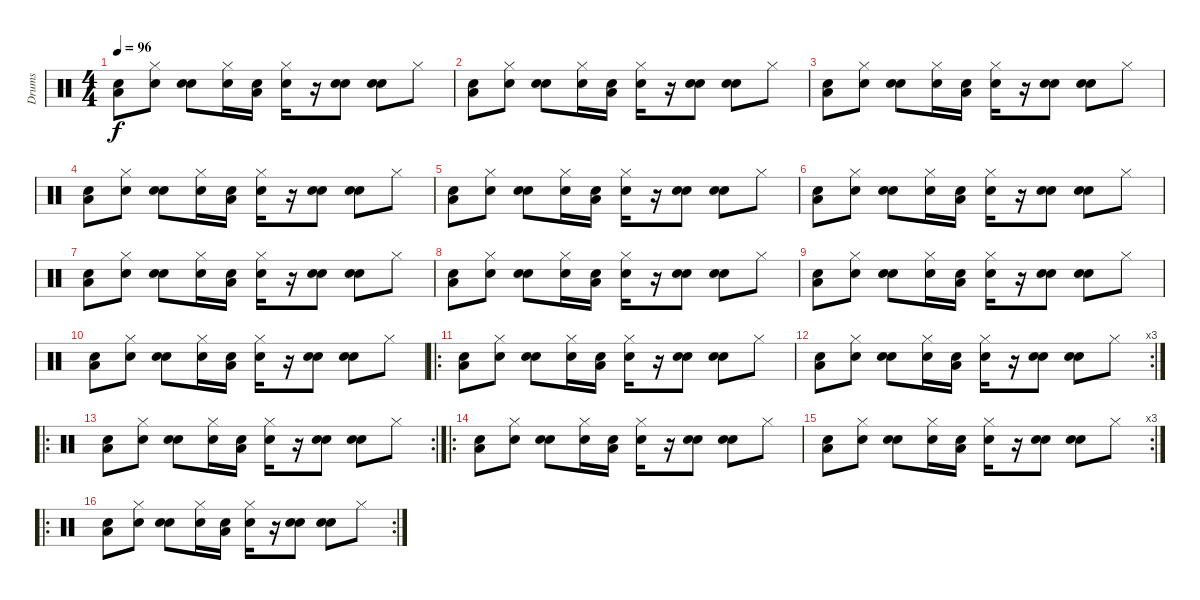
\track ("Drums" "Drums") {instrument percussion}
\staff {score}
\articulation defaults
\ts (4 4)
\tempo 96
\clef neutral
\ks c
("Electric Snare (hit)" "Low Floor Tom (hit)").8{dy f} ("Electric Snare (hit)" "Hi-Hat (closed)").8 ("Snare (hit) 2" "Electric Snare (hit)").8 ("Electric Snare (hit)" "Hi-Hat (closed)").16 ("Electric Snare (hit)" "Low Floor Tom (hit)").16 ("Electric Snare (hit)" "Hi-Hat (closed)").16 r.16 ("Electric Snare (hit)" "Electric Snare (hit)").8 ("Snare (hit) 2" "Electric Snare (hit)").8 "Hi-Hat (closed)".8 |
("Electric Snare (hit)" "Low Floor Tom (hit)").8 ("Electric Snare (hit)" "Hi-Hat (closed)").8 ("Snare (hit) 2" "Electric Snare (hit)").8 ("Electric Snare (hit)" "Hi-Hat (closed)").16 ("Electric Snare (hit)" "Low Floor Tom (hit)").16 ("Electric Snare (hit)" "Hi-Hat (closed)").16 r.16 ("Electric Snare (hit)" "Electric Snare (hit)").8 ("Snare (hit) 2" "Electric Snare (hit)").8 "Hi-Hat (closed)".8 |
("Electric Snare (hit)" "Low Floor Tom (hit)").8 ("Electric Snare (hit)" "Hi-Hat (closed)").8 ("Snare (hit) 2" "Electric Snare (hit)").8 ("Electric Snare (hit)" "Hi-Hat (closed)").16 ("Electric Snare (hit)" "Low Floor Tom (hit)").16 ("Electric Snare (hit)" "Hi-Hat (closed)").16 r.16 ("Electric Snare (hit)" "Electric Snare (hit)").8 ("Snare (hit) 2" "Electric Snare (hit)").8 "Hi-Hat (closed)".8 |
("Electric Snare (hit)" "Low Floor Tom (hit)").8 ("Electric Snare (hit)" "Hi-Hat (closed)").8 ("Snare (hit) 2" "Electric Snare (hit)").8 ("Electric Snare (hit)" "Hi-Hat (closed)").16 ("Electric Snare (hit)" "Low Floor Tom (hit)").16 ("Electric Snare (hit)" "Hi-Hat (closed)").16 r.16 ("Electric Snare (hit)" "Electric Snare (hit)").8 ("Snare (hit) 2" "Electric Snare (hit)").8 "Hi-Hat (closed)".8 |
("Electric Snare (hit)" "Low Floor Tom (hit)").8 ("Electric Snare (hit)" "Hi-Hat (closed)").8 ("Snare (hit) 2" "Electric Snare (hit)").8 ("Electric Snare (hit)" "Hi-Hat (closed)").16 ("Electric Snare (hit)" "Low Floor Tom (hit)").16 ("Electric Snare (hit)" "Hi-Hat (closed)").16 r.16 ("Electric Snare (hit)" "Electric Snare (hit)").8 ("Snare (hit) 2" "Electric Snare (hit)").8 "Hi-Hat (closed)".8 |
("Electric Snare (hit)" "Low Floor Tom (hit)").8 ("Electric Snare (hit)" "Hi-Hat (closed)").8 ("Snare (hit) 2" "Electric Snare (hit)").8 ("Electric Snare (hit)" "Hi-Hat (closed)").16 ("Electric Snare (hit)" "Low Floor Tom (hit)").16 ("Electric Snare (hit)" "Hi-Hat (closed)").16 r.16 ("Electric Snare (hit)" "Electric Snare (hit)").8 ("Snare (hit) 2" "Electric Snare (hit)").8 "Hi-Hat (closed)".8 |
("Electric Snare (hit)" "Low Floor Tom (hit)").8 ("Electric Snare (hit)" "Hi-Hat (closed)").8 ("Snare (hit) 2" "Electric Snare (hit)").8 ("Electric Snare (hit)" "Hi-Hat (closed)").16 ("Electric Snare (hit)" "Low Floor Tom (hit)").16 ("Electric Snare (hit)" "Hi-Hat (closed)").16 r.16 ("Electric Snare (hit)" "Electric Snare (hit)").8 ("Snare (hit) 2" "Electric Snare (hit)").8 "Hi-Hat (closed)".8 |
("Electric Snare (hit)" "Low Floor Tom (hit)").8 ("Electric Snare (hit)" "Hi-Hat (closed)").8 ("Snare (hit) 2" "Electric Snare (hit)").8 ("Electric Snare (hit)" "Hi-Hat (closed)").16 ("Electric Snare (hit)" "Low Floor Tom (hit)").16 ("Electric Snare (hit)" "Hi-Hat (closed)").16 r.16 ("Electric Snare (hit)" "Electric Snare (hit)").8 ("Snare (hit) 2" "Electric Snare (hit)").8 "Hi-Hat (closed)".8 |
("Electric Snare (hit)" "Low Floor Tom (hit)").8 ("Electric Snare (hit)" "Hi-Hat (closed)").8 ("Snare (hit) 2" "Electric Snare (hit)").8 ("Electric Snare (hit)" "Hi-Hat (closed)").16 ("Electric Snare (hit)" "Low Floor Tom (hit)").16 ("Electric Snare (hit)" "Hi-Hat (closed)").16 r.16 ("Electric Snare (hit)" "Electric Snare (hit)").8 ("Snare (hit) 2" "Electric Snare (hit)").8 "Hi-Hat (closed)".8 |
("Electric Snare (hit)" "Low Floor Tom (hit)").8 ("Electric Snare (hit)" "Hi-Hat (closed)").8 ("Snare (hit) 2" "Electric Snare (hit)").8 ("Electric Snare (hit)" "Hi-Hat (closed)").16 ("Electric Snare (hit)" "Low Floor Tom (hit)").16 ("Electric Snare (hit)" "Hi-Hat (closed)").16 r.16 ("Electric Snare (hit)" "Electric Snare (hit)").8 ("Snare (hit) 2" "Electric Snare (hit)").8 "Hi-Hat (closed)".8 |
\ro
("Electric Snare (hit)" "Low Floor Tom (hit)").8 ("Electric Snare (hit)" "Hi-Hat (closed)").8 ("Snare (hit) 2" "Electric Snare (hit)").8 ("Electric Snare (hit)" "Hi-Hat (closed)").16 ("Electric Snare (hit)" "Low Floor Tom (hit)").16 ("Electric Snare (hit)" "Hi-Hat (closed)").16 r.16 ("Electric Snare (hit)" "Electric Snare (hit)").8 ("Snare (hit) 2" "Electric Snare (hit)").8 "Hi-Hat (closed)".8 |
\rc 3
("Electric Snare (hit)" "Low Floor Tom (hit)").8 ("Electric Snare (hit)" "Hi-Hat (closed)").8 ("Snare (hit) 2" "Electric Snare (hit)").8 ("Electric Snare (hit)" "Hi-Hat (closed)").16 ("Electric Snare (hit)" "Low Floor Tom (hit)").16 ("Electric Snare (hit)" "Hi-Hat (closed)").16 r.16 ("Electric Snare (hit)" "Electric Snare (hit)").8 ("Snare (hit) 2" "Electric Snare (hit)").8 "Hi-Hat (closed)".8 |
\ro
\rc 2
("Electric Snare (hit)" "Low Floor Tom (hit)").8 ("Electric Snare (hit)" "Hi-Hat (closed)").8 ("Snare (hit) 2" "Electric Snare (hit)").8 ("Electric Snare (hit)" "Hi-Hat (closed)").16 ("Electric Snare (hit)" "Low Floor Tom (hit)").16 ("Electric Snare (hit)" "Hi-Hat (closed)").16 r.16 ("Electric Snare (hit)" "Electric Snare (hit)").8 ("Snare (hit) 2" "Electric Snare (hit)").8 "Hi-Hat (closed)".8 |
\ro
("Electric Snare (hit)" "Low Floor Tom (hit)").8 ("Electric Snare (hit)" "Hi-Hat (closed)").8 ("Snare (hit) 2" "Electric Snare (hit)").8 ("Electric Snare (hit)" "Hi-Hat (closed)").16 ("Electric Snare (hit)" "Low Floor Tom (hit)").16 ("Electric Snare (hit)" "Hi-Hat (closed)").16 r.16 ("Electric Snare (hit)" "Electric Snare (hit)").8 ("Snare (hit) 2" "Electric Snare (hit)").8 "Hi-Hat (closed)".8 |
\rc 3
("Electric Snare (hit)" "Low Floor Tom (hit)").8 ("Electric Snare (hit)" "Hi-Hat (closed)").8 ("Snare (hit) 2" "Electric Snare (hit)").8 ("Electric Snare (hit)" "Hi-Hat (closed)").16 ("Electric Snare (hit)" "Low Floor Tom (hit)").16 ("Electric Snare (hit)" "Hi-Hat (closed)").16 r.16 ("Electric Snare (hit)" "Electric Snare (hit)").8 ("Snare (hit) 2" "Electric Snare (hit)").8 "Hi-Hat (closed)".8 |
\ro
\rc 2
("Electric Snare (hit)" "Low Floor Tom (hit)").8 ("Electric Snare (hit)" "Hi-Hat (closed)").8 ("Snare (hit) 2" "Electric Snare (hit)").8 ("Electric Snare (hit)" "Hi-Hat (closed)").16 ("Electric Snare (hit)" "Low Floor Tom (hit)").16 ("Electric Snare (hit)" "Hi-Hat (closed)").16 r.16 ("Electric Snare (hit)" "Electric Snare (hit)").8 ("Snare (hit) 2" "Electric Snare (hit)").8 "Hi-Hat (closed)".8
